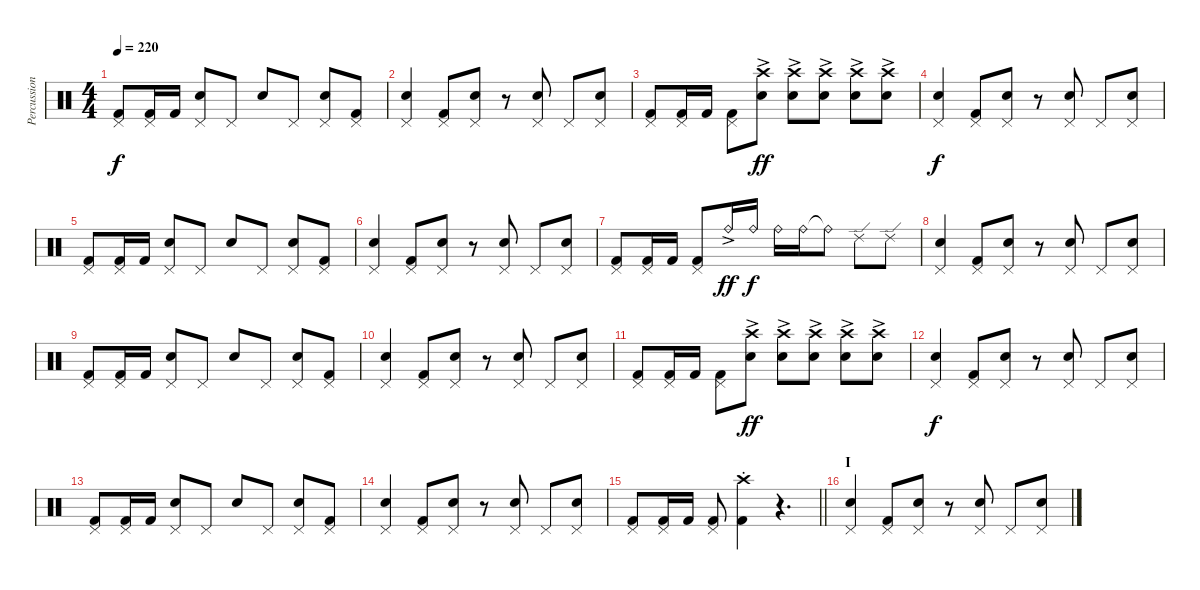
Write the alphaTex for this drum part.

\track ("Percussion" "Percussion") {instrument percussion}
\staff {score}
\articulation defaults
\ts (4 4)
\tempo 220
\clef neutral
\ks c
("Pedal Hi-Hat (hit)" "Kick (hit) 2").8{dy f} ("Pedal Hi-Hat (hit)" "Kick (hit) 2").16 "Kick (hit) 2".16 ("Pedal Hi-Hat (hit)" "Electric Snare (hit)").8 "Pedal Hi-Hat (hit)".8 "Electric Snare (hit)".8 "Pedal Hi-Hat (hit)".8 ("Pedal Hi-Hat (hit)" "Electric Snare (hit)").8 ("Pedal Hi-Hat (hit)" "Kick (hit) 2").8 |
("Pedal Hi-Hat (hit)" "Electric Snare (hit)").4 ("Pedal Hi-Hat (hit)" "Kick (hit) 2").8 ("Pedal Hi-Hat (hit)" "Electric Snare (hit)").8 r.8 ("Pedal Hi-Hat (hit)" "Electric Snare (hit)").8 "Pedal Hi-Hat (hit)".8 ("Pedal Hi-Hat (hit)" "Electric Snare (hit)").8 |
("Pedal Hi-Hat (hit)" "Kick (hit) 2").8 ("Pedal Hi-Hat (hit)" "Kick (hit) 2").16 "Kick (hit) 2".16 ("Pedal Hi-Hat (hit)" "Kick (hit) 2").8 ("Crash high (hit)"{ac} "Electric Snare (hit)"{ac}).8{dy ff} ("Crash high (hit)"{ac} "Electric Snare (hit)"{ac}).8 ("Crash high (hit)"{ac} "Electric Snare (hit)"{ac}).8 ("Crash high (hit)"{ac} "Electric Snare (hit)"{ac}).8 ("Crash high (hit)"{ac} "Electric Snare (hit)"{ac}).8 |
("Pedal Hi-Hat (hit)" "Electric Snare (hit)").4{dy f} ("Pedal Hi-Hat (hit)" "Kick (hit) 2").8 ("Pedal Hi-Hat (hit)" "Electric Snare (hit)").8 r.8 ("Pedal Hi-Hat (hit)" "Electric Snare (hit)").8 "Pedal Hi-Hat (hit)".8 ("Pedal Hi-Hat (hit)" "Electric Snare (hit)").8 |
("Pedal Hi-Hat (hit)" "Kick (hit) 2").8 ("Pedal Hi-Hat (hit)" "Kick (hit) 2").16 "Kick (hit) 2".16 ("Pedal Hi-Hat (hit)" "Electric Snare (hit)").8 "Pedal Hi-Hat (hit)".8 "Electric Snare (hit)".8 "Pedal Hi-Hat (hit)".8 ("Pedal Hi-Hat (hit)" "Electric Snare (hit)").8 ("Pedal Hi-Hat (hit)" "Kick (hit) 2").8 |
("Pedal Hi-Hat (hit)" "Electric Snare (hit)").4 ("Pedal Hi-Hat (hit)" "Kick (hit) 2").8 ("Pedal Hi-Hat (hit)" "Electric Snare (hit)").8 r.8 ("Pedal Hi-Hat (hit)" "Electric Snare (hit)").8 "Pedal Hi-Hat (hit)".8 ("Pedal Hi-Hat (hit)" "Electric Snare (hit)").8 |
("Pedal Hi-Hat (hit)" "Kick (hit) 2").8 ("Pedal Hi-Hat (hit)" "Kick (hit) 2").16 "Kick (hit) 2".16 ("Pedal Hi-Hat (hit)" "Kick (hit) 2").8 "Ride (bell)"{ac}.16{dy ff} "Ride (bell)".16{dy f} "Ride (bell)".16 "Ride (bell)".16 "Ride (bell)"{t}.8 "Ride (edge) 2".8 "Ride (edge) 2".8 |
("Pedal Hi-Hat (hit)" "Electric Snare (hit)").4 ("Pedal Hi-Hat (hit)" "Kick (hit) 2").8 ("Pedal Hi-Hat (hit)" "Electric Snare (hit)").8 r.8 ("Pedal Hi-Hat (hit)" "Electric Snare (hit)").8 "Pedal Hi-Hat (hit)".8 ("Pedal Hi-Hat (hit)" "Electric Snare (hit)").8 |
("Pedal Hi-Hat (hit)" "Kick (hit) 2").8 ("Pedal Hi-Hat (hit)" "Kick (hit) 2").16 "Kick (hit) 2".16 ("Pedal Hi-Hat (hit)" "Electric Snare (hit)").8 "Pedal Hi-Hat (hit)".8 "Electric Snare (hit)".8 "Pedal Hi-Hat (hit)".8 ("Pedal Hi-Hat (hit)" "Electric Snare (hit)").8 ("Pedal Hi-Hat (hit)" "Kick (hit) 2").8 |
("Pedal Hi-Hat (hit)" "Electric Snare (hit)").4 ("Pedal Hi-Hat (hit)" "Kick (hit) 2").8 ("Pedal Hi-Hat (hit)" "Electric Snare (hit)").8 r.8 ("Pedal Hi-Hat (hit)" "Electric Snare (hit)").8 "Pedal Hi-Hat (hit)".8 ("Pedal Hi-Hat (hit)" "Electric Snare (hit)").8 |
("Pedal Hi-Hat (hit)" "Kick (hit) 2").8 ("Pedal Hi-Hat (hit)" "Kick (hit) 2").16 "Kick (hit) 2".16 ("Pedal Hi-Hat (hit)" "Kick (hit) 2").8 ("Crash high (hit)"{ac} "Electric Snare (hit)"{ac}).8{dy ff} ("Crash high (hit)"{ac} "Electric Snare (hit)"{ac}).8 ("Crash high (hit)"{ac} "Electric Snare (hit)"{ac}).8 ("Crash high (hit)"{ac} "Electric Snare (hit)"{ac}).8 ("Crash high (hit)"{ac} "Electric Snare (hit)"{ac}).8 |
("Pedal Hi-Hat (hit)" "Electric Snare (hit)").4{dy f} ("Pedal Hi-Hat (hit)" "Kick (hit) 2").8 ("Pedal Hi-Hat (hit)" "Electric Snare (hit)").8 r.8 ("Pedal Hi-Hat (hit)" "Electric Snare (hit)").8 "Pedal Hi-Hat (hit)".8 ("Pedal Hi-Hat (hit)" "Electric Snare (hit)").8 |
("Pedal Hi-Hat (hit)" "Kick (hit) 2").8 ("Pedal Hi-Hat (hit)" "Kick (hit) 2").16 "Kick (hit) 2".16 ("Pedal Hi-Hat (hit)" "Electric Snare (hit)").8 "Pedal Hi-Hat (hit)".8 "Electric Snare (hit)".8 "Pedal Hi-Hat (hit)".8 ("Pedal Hi-Hat (hit)" "Electric Snare (hit)").8 ("Pedal Hi-Hat (hit)" "Kick (hit) 2").8 |
("Pedal Hi-Hat (hit)" "Electric Snare (hit)").4 ("Pedal Hi-Hat (hit)" "Kick (hit) 2").8 ("Pedal Hi-Hat (hit)" "Electric Snare (hit)").8 r.8 ("Pedal Hi-Hat (hit)" "Electric Snare (hit)").8 "Pedal Hi-Hat (hit)".8 ("Pedal Hi-Hat (hit)" "Electric Snare (hit)").8 |
\barLineRight lightlight
("Pedal Hi-Hat (hit)" "Kick (hit) 2").8 ("Pedal Hi-Hat (hit)" "Kick (hit) 2").16 "Kick (hit) 2".16 ("Pedal Hi-Hat (hit)" "Kick (hit) 2").8 ("Crash high (hit)"{st} "Kick (hit) 2").4 r.4{d volume 0} |
\section ("" "I")
("Pedal Hi-Hat (hit)" "Electric Snare (hit)").4{volume 14} ("Pedal Hi-Hat (hit)" "Kick (hit) 2").8 ("Pedal Hi-Hat (hit)" "Electric Snare (hit)").8 r.8 ("Pedal Hi-Hat (hit)" "Electric Snare (hit)").8 "Pedal Hi-Hat (hit)".8 ("Pedal Hi-Hat (hit)" "Electric Snare (hit)").8
